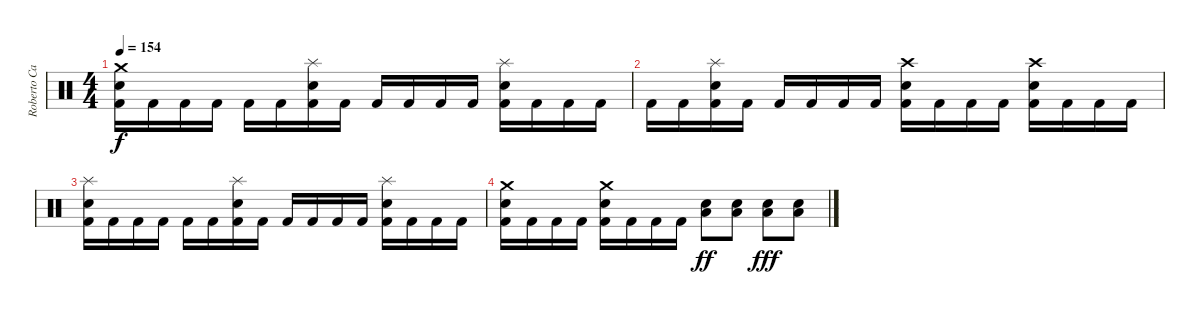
\track ("Roberto Cappa - Drums" "Roberto Ca") {instrument percussion}
\staff
\articulation defaults
\ts (4 4)
\tempo 154
\clef neutral
\ks c
("Crash medium (hit)" "Kick (hit) 2" "Electric Snare (hit)").16{dy f} "Kick (hit) 2".16 "Kick (hit) 2".16 "Kick (hit) 2".16 "Kick (hit) 2".16 "Kick (hit) 2".16 ("Splash (hit)" "Kick (hit) 2" "Electric Snare (hit)").16 "Kick (hit) 2".16 "Kick (hit) 2".16 "Kick (hit) 2".16 "Kick (hit) 2".16 "Kick (hit) 2".16 ("Splash (hit)" "Kick (hit) 2" "Electric Snare (hit)").16 "Kick (hit) 2".16 "Kick (hit) 2".16 "Kick (hit) 2".16 |
"Kick (hit) 2".16 "Kick (hit) 2".16 ("Splash (hit)" "Kick (hit) 2" "Electric Snare (hit)").16 "Kick (hit) 2".16 "Kick (hit) 2".16 "Kick (hit) 2".16 "Kick (hit) 2".16 "Kick (hit) 2".16 ("Crash high (hit)" "Kick (hit) 2" "Electric Snare (hit)").16 "Kick (hit) 2".16 "Kick (hit) 2".16 "Kick (hit) 2".16 ("Crash high (hit)" "Kick (hit) 2" "Electric Snare (hit)").16 "Kick (hit) 2".16 "Kick (hit) 2".16 "Kick (hit) 2".16 |
("Splash (hit)" "Kick (hit) 2" "Electric Snare (hit)").16 "Kick (hit) 2".16 "Kick (hit) 2".16 "Kick (hit) 2".16 "Kick (hit) 2".16 "Kick (hit) 2".16 ("Splash (hit)" "Kick (hit) 2" "Electric Snare (hit)").16 "Kick (hit) 2".16 "Kick (hit) 2".16 "Kick (hit) 2".16 "Kick (hit) 2".16 "Kick (hit) 2".16 ("Splash (hit)" "Kick (hit) 2" "Electric Snare (hit)").16 "Kick (hit) 2".16 "Kick (hit) 2".16 "Kick (hit) 2".16 |
("Crash medium (hit)" "Kick (hit) 2" "Electric Snare (hit)").16 "Kick (hit) 2".16 "Kick (hit) 2".16 "Kick (hit) 2".16 ("Crash medium (hit)" "Kick (hit) 2" "Electric Snare (hit)").16 "Kick (hit) 2".16 "Kick (hit) 2".16 "Kick (hit) 2".16 ("Low Tom (hit)" "Electric Snare (hit)").8{dy ff} ("Low Tom (hit)" "Electric Snare (hit)").8 ("Low Tom (hit)" "Electric Snare (hit)").8{dy fff} ("Low Tom (hit)" "Electric Snare (hit)").8
